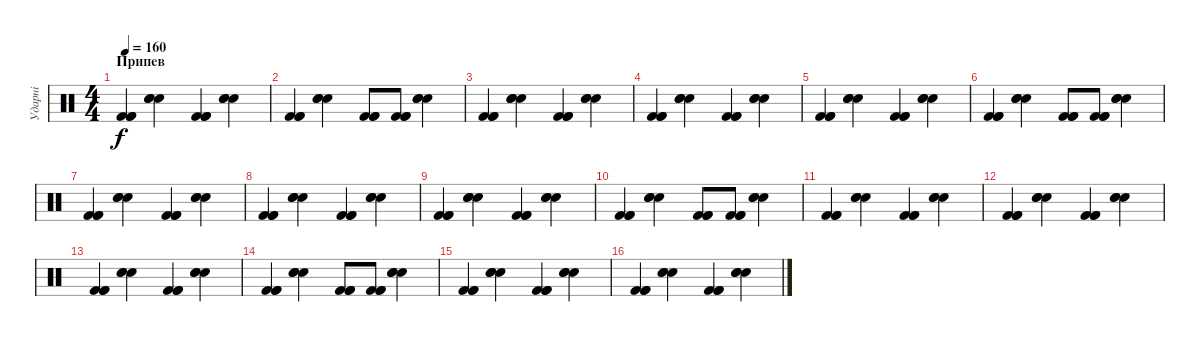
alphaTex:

\track ("Ударні" "Ударні") {instrument percussion}
\staff {score}
\articulation defaults
\ts (4 4)
\section ("" "Припев")
\tempo 160
\clef neutral
\ks c
("Kick (hit) 2" "Kick (hit) 2" "Kick (hit) 2").4{dy f} ("Snare (hit) 2" "Snare (hit) 2" "Snare (hit) 2").4 ("Kick (hit) 2" "Kick (hit) 2" "Kick (hit) 2").4 ("Snare (hit) 2" "Snare (hit) 2" "Snare (hit) 2").4 |
("Kick (hit) 2" "Kick (hit) 2" "Kick (hit) 2").4 ("Snare (hit) 2" "Snare (hit) 2" "Snare (hit) 2").4 ("Kick (hit) 2" "Kick (hit) 2" "Kick (hit) 2").8 ("Kick (hit) 2" "Kick (hit) 2" "Kick (hit) 2").8 ("Snare (hit) 2" "Snare (hit) 2" "Snare (hit) 2").4 |
("Kick (hit) 2" "Kick (hit) 2" "Kick (hit) 2").4 ("Snare (hit) 2" "Snare (hit) 2" "Snare (hit) 2").4 ("Kick (hit) 2" "Kick (hit) 2" "Kick (hit) 2").4 ("Snare (hit) 2" "Snare (hit) 2" "Snare (hit) 2").4 |
("Kick (hit) 2" "Kick (hit) 2" "Kick (hit) 2").4 ("Snare (hit) 2" "Snare (hit) 2" "Snare (hit) 2").4 ("Kick (hit) 2" "Kick (hit) 2" "Kick (hit) 2").4 ("Snare (hit) 2" "Snare (hit) 2" "Snare (hit) 2").4 |
("Kick (hit) 2" "Kick (hit) 2" "Kick (hit) 2").4 ("Snare (hit) 2" "Snare (hit) 2" "Snare (hit) 2").4 ("Kick (hit) 2" "Kick (hit) 2" "Kick (hit) 2").4 ("Snare (hit) 2" "Snare (hit) 2" "Snare (hit) 2").4 |
("Kick (hit) 2" "Kick (hit) 2" "Kick (hit) 2").4 ("Snare (hit) 2" "Snare (hit) 2" "Snare (hit) 2").4 ("Kick (hit) 2" "Kick (hit) 2" "Kick (hit) 2").8 ("Kick (hit) 2" "Kick (hit) 2" "Kick (hit) 2").8 ("Snare (hit) 2" "Snare (hit) 2" "Snare (hit) 2").4 |
("Kick (hit) 2" "Kick (hit) 2" "Kick (hit) 2").4 ("Snare (hit) 2" "Snare (hit) 2" "Snare (hit) 2").4 ("Kick (hit) 2" "Kick (hit) 2" "Kick (hit) 2").4 ("Snare (hit) 2" "Snare (hit) 2" "Snare (hit) 2").4 |
("Kick (hit) 2" "Kick (hit) 2" "Kick (hit) 2").4 ("Snare (hit) 2" "Snare (hit) 2" "Snare (hit) 2").4 ("Kick (hit) 2" "Kick (hit) 2" "Kick (hit) 2").4 ("Snare (hit) 2" "Snare (hit) 2" "Snare (hit) 2").4 |
("Kick (hit) 2" "Kick (hit) 2" "Kick (hit) 2").4 ("Snare (hit) 2" "Snare (hit) 2" "Snare (hit) 2").4 ("Kick (hit) 2" "Kick (hit) 2" "Kick (hit) 2").4 ("Snare (hit) 2" "Snare (hit) 2" "Snare (hit) 2").4 |
("Kick (hit) 2" "Kick (hit) 2" "Kick (hit) 2").4 ("Snare (hit) 2" "Snare (hit) 2" "Snare (hit) 2").4 ("Kick (hit) 2" "Kick (hit) 2" "Kick (hit) 2").8 ("Kick (hit) 2" "Kick (hit) 2" "Kick (hit) 2").8 ("Snare (hit) 2" "Snare (hit) 2" "Snare (hit) 2").4 |
("Kick (hit) 2" "Kick (hit) 2" "Kick (hit) 2").4 ("Snare (hit) 2" "Snare (hit) 2" "Snare (hit) 2").4 ("Kick (hit) 2" "Kick (hit) 2" "Kick (hit) 2").4 ("Snare (hit) 2" "Snare (hit) 2" "Snare (hit) 2").4 |
("Kick (hit) 2" "Kick (hit) 2" "Kick (hit) 2").4 ("Snare (hit) 2" "Snare (hit) 2" "Snare (hit) 2").4 ("Kick (hit) 2" "Kick (hit) 2" "Kick (hit) 2").4 ("Snare (hit) 2" "Snare (hit) 2" "Snare (hit) 2").4 |
("Kick (hit) 2" "Kick (hit) 2" "Kick (hit) 2").4 ("Snare (hit) 2" "Snare (hit) 2" "Snare (hit) 2").4 ("Kick (hit) 2" "Kick (hit) 2" "Kick (hit) 2").4 ("Snare (hit) 2" "Snare (hit) 2" "Snare (hit) 2").4 |
("Kick (hit) 2" "Kick (hit) 2" "Kick (hit) 2").4 ("Snare (hit) 2" "Snare (hit) 2" "Snare (hit) 2").4 ("Kick (hit) 2" "Kick (hit) 2" "Kick (hit) 2").8 ("Kick (hit) 2" "Kick (hit) 2" "Kick (hit) 2").8 ("Snare (hit) 2" "Snare (hit) 2" "Snare (hit) 2").4 |
("Kick (hit) 2" "Kick (hit) 2" "Kick (hit) 2").4 ("Snare (hit) 2" "Snare (hit) 2" "Snare (hit) 2").4 ("Kick (hit) 2" "Kick (hit) 2" "Kick (hit) 2").4 ("Snare (hit) 2" "Snare (hit) 2" "Snare (hit) 2").4 |
("Kick (hit) 2" "Kick (hit) 2" "Kick (hit) 2").4 ("Snare (hit) 2" "Snare (hit) 2" "Snare (hit) 2").4 ("Kick (hit) 2" "Kick (hit) 2" "Kick (hit) 2").4 ("Snare (hit) 2" "Snare (hit) 2" "Snare (hit) 2").4
